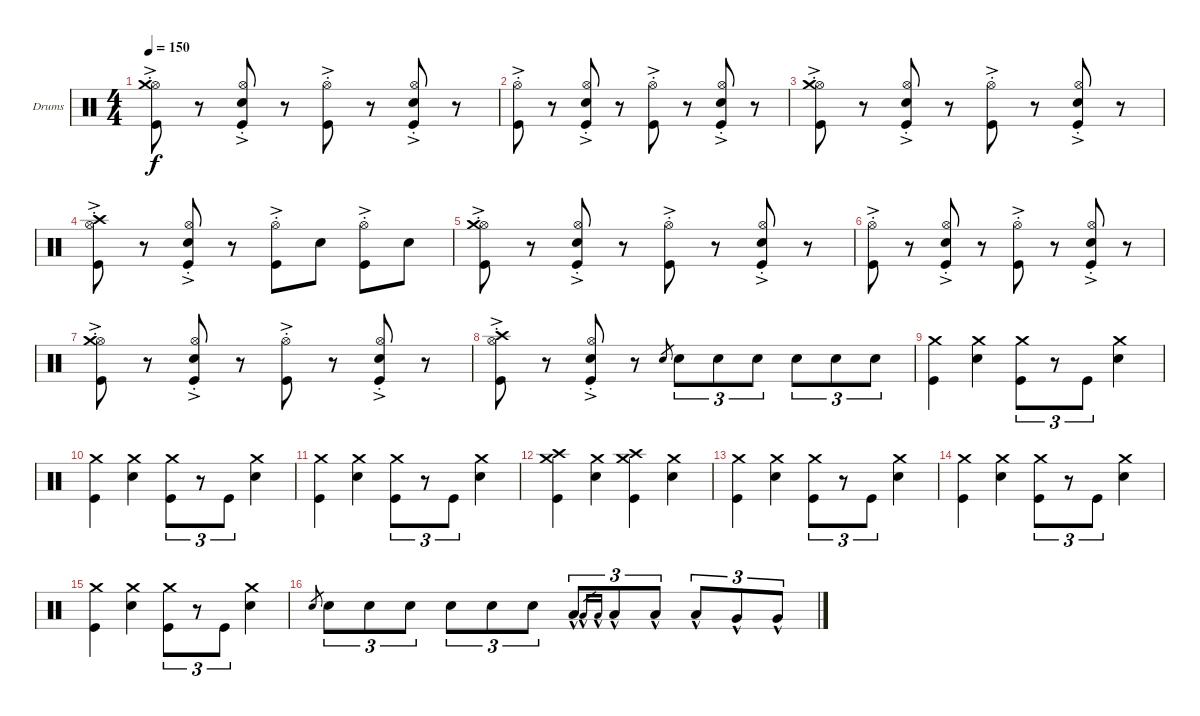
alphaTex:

\defaultSystemsLayout 4
\bracketExtendMode groupsimilarinstruments
\firstSystemTrackNameOrientation horizontal
\otherSystemsTrackNameOrientation horizontal
\track ("Drumkit" "Drums") {instrument percussion}
\staff {score}
\articulation defaults
\ts (4 4)
\tempo 150
\clef neutral
\ks c
("Kick (hit)" "Hi-Hat (open)"{ac st} "Crash medium (hit)").8{dy f} r.8 ("Kick (hit)" "Snare (hit) 2" "Hi-Hat (open)"{ac st}).8 r.8 ("Kick (hit)" "Hi-Hat (open)"{ac st}).8 r.8 ("Kick (hit)" "Snare (hit) 2" "Hi-Hat (open)"{ac st}).8 r.8 |
("Kick (hit)" "Hi-Hat (open)"{ac st}).8 r.8 ("Kick (hit)" "Snare (hit) 2" "Hi-Hat (open)"{ac st}).8 r.8 ("Kick (hit)" "Hi-Hat (open)"{ac st}).8 r.8 ("Kick (hit)" "Snare (hit) 2" "Hi-Hat (open)"{ac st}).8 r.8 |
("Kick (hit)" "Hi-Hat (open)"{ac st} "Crash medium (hit)").8 r.8 ("Kick (hit)" "Snare (hit) 2" "Hi-Hat (open)"{ac st}).8 r.8 ("Kick (hit)" "Hi-Hat (open)"{ac st}).8 r.8 ("Kick (hit)" "Snare (hit) 2" "Hi-Hat (open)"{ac st}).8 r.8 |
("Kick (hit)" "Hi-Hat (open)"{ac st} "Crash high (hit)").8 r.8 ("Kick (hit)" "Snare (hit) 2" "Hi-Hat (open)"{ac st}).8 r.8 ("Kick (hit)" "Hi-Hat (open)"{ac st}).8 "Snare (hit) 2".8 ("Kick (hit)" "Hi-Hat (open)"{ac st}).8 "Snare (hit) 2".8 |
("Kick (hit)" "Hi-Hat (open)"{ac st} "Crash medium (hit)").8 r.8 ("Kick (hit)" "Snare (hit) 2" "Hi-Hat (open)"{ac st}).8 r.8 ("Kick (hit)" "Hi-Hat (open)"{ac st}).8 r.8 ("Kick (hit)" "Snare (hit) 2" "Hi-Hat (open)"{ac st}).8 r.8 |
("Kick (hit)" "Hi-Hat (open)"{ac st}).8 r.8 ("Kick (hit)" "Snare (hit) 2" "Hi-Hat (open)"{ac st}).8 r.8 ("Kick (hit)" "Hi-Hat (open)"{ac st}).8 r.8 ("Kick (hit)" "Snare (hit) 2" "Hi-Hat (open)"{ac st}).8 r.8 |
("Kick (hit)" "Hi-Hat (open)"{ac st} "Crash medium (hit)").8 r.8 ("Kick (hit)" "Snare (hit) 2" "Hi-Hat (open)"{ac st}).8 r.8 ("Kick (hit)" "Hi-Hat (open)"{ac st}).8 r.8 ("Kick (hit)" "Snare (hit) 2" "Hi-Hat (open)"{ac st}).8 r.8 |
("Kick (hit)" "Hi-Hat (open)"{ac st} "Crash high (hit)").8 r.8 ("Kick (hit)" "Snare (hit) 2" "Hi-Hat (open)"{ac st}).8 r.8 "Snare (hit) 2".8{gr} "Snare (hit) 2".8{tu (3 2)} "Snare (hit) 2".8{tu (3 2)} "Snare (hit) 2".8{tu (3 2)} "Snare (hit) 2".8{tu (3 2)} "Snare (hit) 2".8{tu (3 2)} "Snare (hit) 2".8{tu (3 2)} |
("Kick (hit)" "Crash medium (hit)").4 ("Snare (hit) 2" "Crash medium (hit)").4 ("Kick (hit)" "Crash medium (hit)").8{tu (3 2)} r.8{tu (3 2)} "Kick (hit)".8{tu (3 2)} ("Snare (hit) 2" "Crash medium (hit)").4 |
("Kick (hit)" "Crash medium (hit)").4 ("Snare (hit) 2" "Crash medium (hit)").4 ("Kick (hit)" "Crash medium (hit)").8{tu (3 2)} r.8{tu (3 2)} "Kick (hit)".8{tu (3 2)} ("Snare (hit) 2" "Crash medium (hit)").4 |
("Kick (hit)" "Crash medium (hit)").4 ("Snare (hit) 2" "Crash medium (hit)").4 ("Kick (hit)" "Crash medium (hit)").8{tu (3 2)} r.8{tu (3 2)} "Kick (hit)".8{tu (3 2)} ("Snare (hit) 2" "Crash medium (hit)").4 |
("Kick (hit)" "Crash medium (hit)" "Crash high (hit)").4 ("Snare (hit) 2" "Crash medium (hit)").4 ("Kick (hit)" "Crash medium (hit)" "Crash high (hit)").4 ("Crash medium (hit)" "Snare (hit) 2").4 |
("Kick (hit)" "Crash medium (hit)").4 ("Snare (hit) 2" "Crash medium (hit)").4 ("Kick (hit)" "Crash medium (hit)").8{tu (3 2)} r.8{tu (3 2)} "Kick (hit)".8{tu (3 2)} ("Snare (hit) 2" "Crash medium (hit)").4 |
("Kick (hit)" "Crash medium (hit)").4 ("Snare (hit) 2" "Crash medium (hit)").4 ("Kick (hit)" "Crash medium (hit)").8{tu (3 2)} r.8{tu (3 2)} "Kick (hit)".8{tu (3 2)} ("Snare (hit) 2" "Crash medium (hit)").4 |
("Kick (hit)" "Crash medium (hit)").4 ("Snare (hit) 2" "Crash medium (hit)").4 ("Kick (hit)" "Crash medium (hit)").8{tu (3 2)} r.8{tu (3 2)} "Kick (hit)".8{tu (3 2)} ("Snare (hit) 2" "Crash medium (hit)").4 |
"Snare (hit) 2".8{gr} "Snare (hit) 2".8{tu (3 2)} "Snare (hit) 2".8{tu (3 2)} "Snare (hit) 2".8{tu (3 2)} "Snare (hit) 2".8{tu (3 2)} "Snare (hit) 2".8{tu (3 2)} "Snare (hit) 2".8{tu (3 2)} "Low Tom (hit)"{hac}.8{tu (3 2)} "Low Tom (hit)"{hac}.16{tu (3 2) gr} "Low Tom (hit)"{hac}.16{tu (3 2) gr} "Low Tom (hit)"{hac}.8{tu (3 2)} "Low Tom (hit)"{hac}.8{tu (3 2)} "Low Tom (hit)"{hac}.8{tu (3 2)} "Very Low Tom (hit)"{hac}.8{tu (3 2)} "Very Low Tom (hit)"{hac}.8{tu (3 2)}
